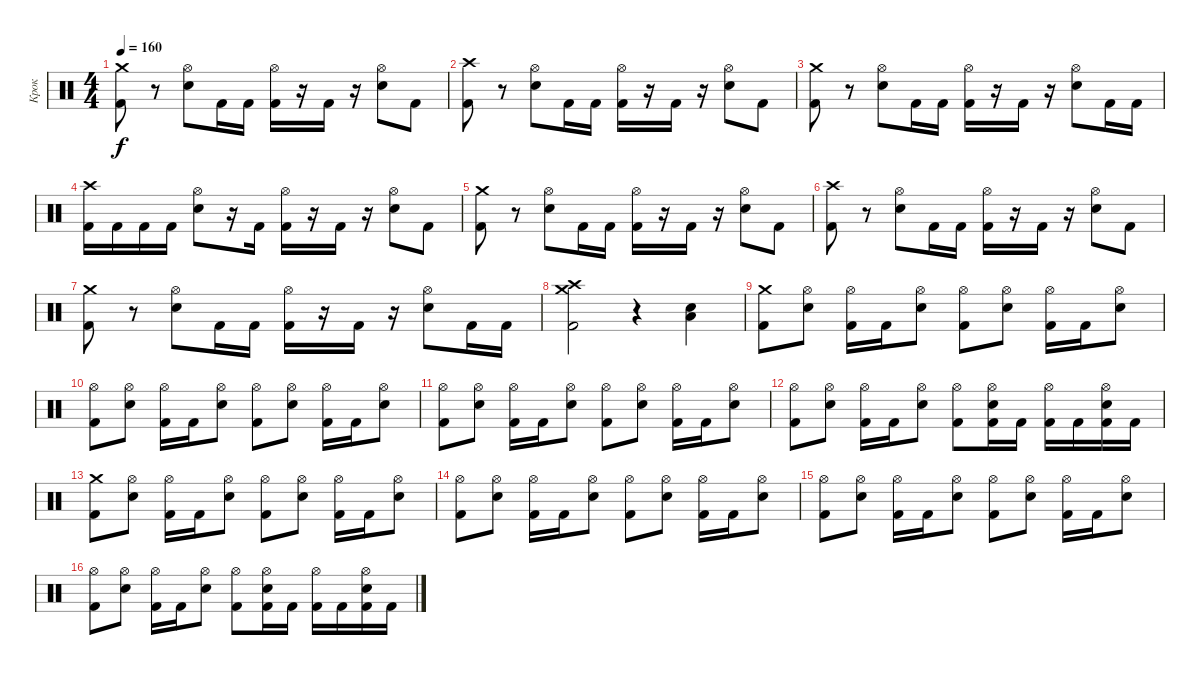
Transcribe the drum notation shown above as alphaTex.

\track ("Крок" "Крок") {instrument percussion}
\staff {score}
\articulation defaults
\ts (4 4)
\tempo 160
\clef neutral
\ks c
("Kick (hit) 2" "Crash medium (hit)").8{dy f} r.8 ("Electric Snare (hit)" "Hi-Hat (open)").8 "Kick (hit) 2".16 "Kick (hit) 2".16 ("Kick (hit) 2" "Hi-Hat (open)").16 r.16 "Kick (hit) 2".16 r.16 ("Electric Snare (hit)" "Hi-Hat (open)").8 "Kick (hit) 2".8 |
("Kick (hit) 2" "Crash high (hit)").8 r.8 ("Electric Snare (hit)" "Hi-Hat (open)").8 "Kick (hit) 2".16 "Kick (hit) 2".16 ("Kick (hit) 2" "Hi-Hat (open)").16 r.16 "Kick (hit) 2".16 r.16 ("Electric Snare (hit)" "Hi-Hat (open)").8 "Kick (hit) 2".8 |
("Kick (hit) 2" "Crash medium (hit)").8 r.8 ("Electric Snare (hit)" "Hi-Hat (open)").8 "Kick (hit) 2".16 "Kick (hit) 2".16 ("Kick (hit) 2" "Hi-Hat (open)").16 r.16 "Kick (hit) 2".16 r.16 ("Electric Snare (hit)" "Hi-Hat (open)").8 "Kick (hit) 2".16 "Kick (hit) 2".16 |
("Kick (hit) 2" "Crash high (hit)").16 "Kick (hit) 2".16 "Kick (hit) 2".16 "Kick (hit) 2".16 ("Electric Snare (hit)" "Hi-Hat (open)").8 r.16 "Kick (hit) 2".16 ("Kick (hit) 2" "Hi-Hat (open)").16 r.16 "Kick (hit) 2".16 r.16 ("Electric Snare (hit)" "Hi-Hat (open)").8 "Kick (hit) 2".8 |
("Kick (hit) 2" "Crash medium (hit)").8 r.8 ("Electric Snare (hit)" "Hi-Hat (open)").8 "Kick (hit) 2".16 "Kick (hit) 2".16 ("Kick (hit) 2" "Hi-Hat (open)").16 r.16 "Kick (hit) 2".16 r.16 ("Electric Snare (hit)" "Hi-Hat (open)").8 "Kick (hit) 2".8 |
("Kick (hit) 2" "Crash high (hit)").8 r.8 ("Electric Snare (hit)" "Hi-Hat (open)").8 "Kick (hit) 2".16 "Kick (hit) 2".16 ("Kick (hit) 2" "Hi-Hat (open)").16 r.16 "Kick (hit) 2".16 r.16 ("Electric Snare (hit)" "Hi-Hat (open)").8 "Kick (hit) 2".8 |
("Kick (hit) 2" "Crash medium (hit)").8 r.8 ("Electric Snare (hit)" "Hi-Hat (open)").8 "Kick (hit) 2".16 "Kick (hit) 2".16 ("Kick (hit) 2" "Hi-Hat (open)").16 r.16 "Kick (hit) 2".16 r.16 ("Electric Snare (hit)" "Hi-Hat (open)").8 "Kick (hit) 2".16 "Kick (hit) 2".16 |
("Kick (hit) 2" "Crash high (hit)" "Crash medium (hit)").2 r.4 ("Electric Snare (hit)" "Low Floor Tom (hit)").4 |
("Kick (hit) 2" "Crash medium (hit)").8 ("Electric Snare (hit)" "Hi-Hat (open)").8 ("Kick (hit) 2" "Hi-Hat (open)").16 "Kick (hit) 2".16 ("Electric Snare (hit)" "Hi-Hat (open)").8 ("Kick (hit) 2" "Hi-Hat (open)").8 ("Electric Snare (hit)" "Hi-Hat (open)").8 ("Kick (hit) 2" "Hi-Hat (open)").16 "Kick (hit) 2".16 ("Electric Snare (hit)" "Hi-Hat (open)").8 |
("Kick (hit) 2" "Hi-Hat (open)").8 ("Electric Snare (hit)" "Hi-Hat (open)").8 ("Kick (hit) 2" "Hi-Hat (open)").16 "Kick (hit) 2".16 ("Electric Snare (hit)" "Hi-Hat (open)").8 ("Kick (hit) 2" "Hi-Hat (open)").8 ("Electric Snare (hit)" "Hi-Hat (open)").8 ("Kick (hit) 2" "Hi-Hat (open)").16 "Kick (hit) 2".16 ("Electric Snare (hit)" "Hi-Hat (open)").8 |
("Kick (hit) 2" "Hi-Hat (open)").8 ("Electric Snare (hit)" "Hi-Hat (open)").8 ("Kick (hit) 2" "Hi-Hat (open)").16 "Kick (hit) 2".16 ("Electric Snare (hit)" "Hi-Hat (open)").8 ("Kick (hit) 2" "Hi-Hat (open)").8 ("Electric Snare (hit)" "Hi-Hat (open)").8 ("Kick (hit) 2" "Hi-Hat (open)").16 "Kick (hit) 2".16 ("Electric Snare (hit)" "Hi-Hat (open)").8 |
("Kick (hit) 2" "Hi-Hat (open)").8 ("Electric Snare (hit)" "Hi-Hat (open)").8 ("Kick (hit) 2" "Hi-Hat (open)").16 "Kick (hit) 2".16 ("Electric Snare (hit)" "Hi-Hat (open)").8 ("Kick (hit) 2" "Hi-Hat (open)").8 ("Kick (hit) 2" "Electric Snare (hit)" "Hi-Hat (open)").16 "Kick (hit) 2".16 ("Kick (hit) 2" "Hi-Hat (open)").16 "Kick (hit) 2".16 ("Kick (hit) 2" "Electric Snare (hit)" "Hi-Hat (open)").16 "Kick (hit) 2".16 |
("Kick (hit) 2" "Crash medium (hit)").8 ("Electric Snare (hit)" "Hi-Hat (open)").8 ("Kick (hit) 2" "Hi-Hat (open)").16 "Kick (hit) 2".16 ("Electric Snare (hit)" "Hi-Hat (open)").8 ("Kick (hit) 2" "Hi-Hat (open)").8 ("Electric Snare (hit)" "Hi-Hat (open)").8 ("Kick (hit) 2" "Hi-Hat (open)").16 "Kick (hit) 2".16 ("Electric Snare (hit)" "Hi-Hat (open)").8 |
("Kick (hit) 2" "Hi-Hat (open)").8 ("Electric Snare (hit)" "Hi-Hat (open)").8 ("Kick (hit) 2" "Hi-Hat (open)").16 "Kick (hit) 2".16 ("Electric Snare (hit)" "Hi-Hat (open)").8 ("Kick (hit) 2" "Hi-Hat (open)").8 ("Electric Snare (hit)" "Hi-Hat (open)").8 ("Kick (hit) 2" "Hi-Hat (open)").16 "Kick (hit) 2".16 ("Electric Snare (hit)" "Hi-Hat (open)").8 |
("Kick (hit) 2" "Hi-Hat (open)").8 ("Electric Snare (hit)" "Hi-Hat (open)").8 ("Kick (hit) 2" "Hi-Hat (open)").16 "Kick (hit) 2".16 ("Electric Snare (hit)" "Hi-Hat (open)").8 ("Kick (hit) 2" "Hi-Hat (open)").8 ("Electric Snare (hit)" "Hi-Hat (open)").8 ("Kick (hit) 2" "Hi-Hat (open)").16 "Kick (hit) 2".16 ("Electric Snare (hit)" "Hi-Hat (open)").8 |
("Kick (hit) 2" "Hi-Hat (open)").8 ("Electric Snare (hit)" "Hi-Hat (open)").8 ("Kick (hit) 2" "Hi-Hat (open)").16 "Kick (hit) 2".16 ("Electric Snare (hit)" "Hi-Hat (open)").8 ("Kick (hit) 2" "Hi-Hat (open)").8 ("Kick (hit) 2" "Electric Snare (hit)" "Hi-Hat (open)").16 "Kick (hit) 2".16 ("Kick (hit) 2" "Hi-Hat (open)").16 "Kick (hit) 2".16 ("Kick (hit) 2" "Electric Snare (hit)" "Hi-Hat (open)").16 "Kick (hit) 2".16
